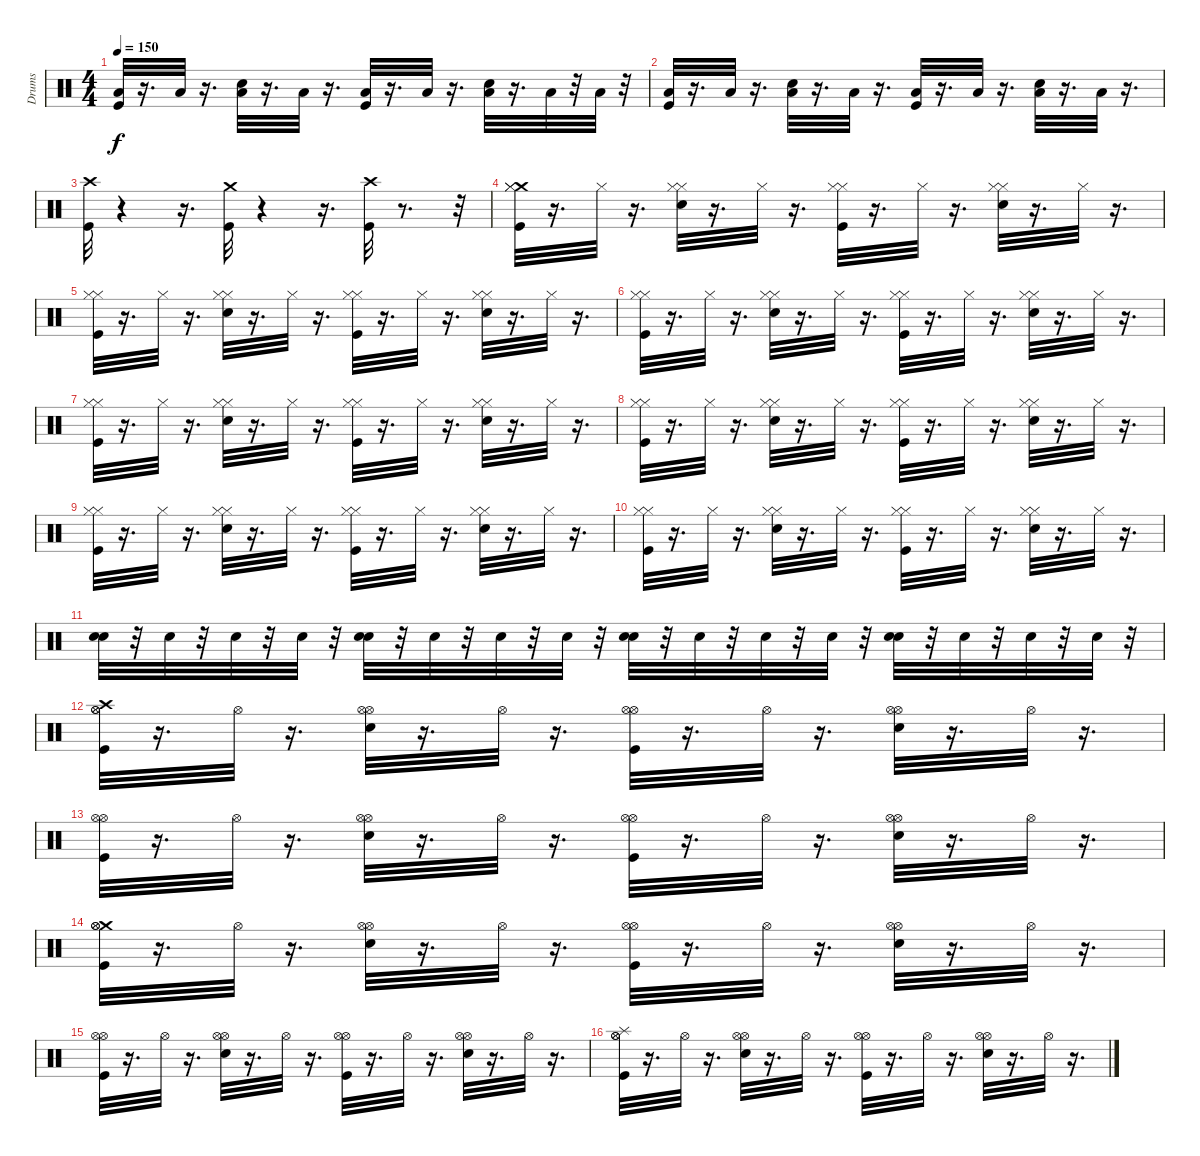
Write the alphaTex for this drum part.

\track ("Drums" "Drums") {instrument percussion}
\staff {score}
\articulation defaults
\ts (4 4)
\tempo 150
\clef neutral
\ks c
("Kick (hit)" "Low Floor Tom (hit)").32{dy f} r.16{d} "Low Floor Tom (hit)".32 r.16{d} ("Low Floor Tom (hit)" "Snare (hit) 2").32 r.16{d} "Low Floor Tom (hit)".32 r.16{d} ("Kick (hit)" "Low Floor Tom (hit)").32 r.16{d} "Low Floor Tom (hit)".32 r.16{d} ("Low Floor Tom (hit)" "Snare (hit) 2").32 r.16{d} "Low Floor Tom (hit)".32 r.32 "Low Floor Tom (hit)".32 r.32 |
("Kick (hit)" "Low Floor Tom (hit)").32 r.16{d} "Low Floor Tom (hit)".32 r.16{d} ("Low Floor Tom (hit)" "Snare (hit) 2").32 r.16{d} "Low Floor Tom (hit)".32 r.16{d} ("Low Floor Tom (hit)" "Kick (hit)").32 r.16{d} "Low Floor Tom (hit)".32 r.16{d} ("Snare (hit) 2" "Low Floor Tom (hit)").32 r.16{d} "Low Floor Tom (hit)".32 r.16{d} |
("Crash high (hit)" "Kick (hit)").32 r.4 r.16{d} ("Kick (hit)" "Crash medium (hit)").32 r.4 r.16{d} ("Crash high (hit)" "Kick (hit)").32 r.8{d} r.32 |
("Crash medium (hit)" "Hi-Hat (closed)" "Hi-Hat (closed)" "Kick (hit)").32 r.16{d} "Hi-Hat (closed)".32 r.16{d} ("Hi-Hat (closed)" "Hi-Hat (closed)" "Snare (hit) 2").32 r.16{d} "Hi-Hat (closed)".32 r.16{d} ("Hi-Hat (closed)" "Hi-Hat (closed)" "Kick (hit)").32 r.16{d} "Hi-Hat (closed)".32 r.16{d} ("Hi-Hat (closed)" "Hi-Hat (closed)" "Snare (hit) 2").32 r.16{d} "Hi-Hat (closed)".32 r.16{d} |
("Hi-Hat (closed)" "Hi-Hat (closed)" "Kick (hit)").32 r.16{d} "Hi-Hat (closed)".32 r.16{d} ("Hi-Hat (closed)" "Hi-Hat (closed)" "Snare (hit) 2").32 r.16{d} "Hi-Hat (closed)".32 r.16{d} ("Hi-Hat (closed)" "Hi-Hat (closed)" "Kick (hit)").32 r.16{d} "Hi-Hat (closed)".32 r.16{d} ("Hi-Hat (closed)" "Hi-Hat (closed)" "Snare (hit) 2").32 r.16{d} "Hi-Hat (closed)".32 r.16{d} |
("Hi-Hat (closed)" "Hi-Hat (closed)" "Kick (hit)").32 r.16{d} "Hi-Hat (closed)".32 r.16{d} ("Hi-Hat (closed)" "Hi-Hat (closed)" "Snare (hit) 2").32 r.16{d} "Hi-Hat (closed)".32 r.16{d} ("Hi-Hat (closed)" "Hi-Hat (closed)" "Kick (hit)").32 r.16{d} "Hi-Hat (closed)".32 r.16{d} ("Hi-Hat (closed)" "Hi-Hat (closed)" "Snare (hit) 2").32 r.16{d} "Hi-Hat (closed)".32 r.16{d} |
("Hi-Hat (closed)" "Hi-Hat (closed)" "Kick (hit)").32 r.16{d} "Hi-Hat (closed)".32 r.16{d} ("Hi-Hat (closed)" "Hi-Hat (closed)" "Snare (hit) 2").32 r.16{d} "Hi-Hat (closed)".32 r.16{d} ("Hi-Hat (closed)" "Hi-Hat (closed)" "Kick (hit)").32 r.16{d} "Hi-Hat (closed)".32 r.16{d} ("Hi-Hat (closed)" "Hi-Hat (closed)" "Snare (hit) 2").32 r.16{d} "Hi-Hat (closed)".32 r.16{d} |
("Hi-Hat (closed)" "Hi-Hat (closed)" "Kick (hit)").32 r.16{d} "Hi-Hat (closed)".32 r.16{d} ("Hi-Hat (closed)" "Hi-Hat (closed)" "Snare (hit) 2").32 r.16{d} "Hi-Hat (closed)".32 r.16{d} ("Hi-Hat (closed)" "Hi-Hat (closed)" "Kick (hit)").32 r.16{d} "Hi-Hat (closed)".32 r.16{d} ("Hi-Hat (closed)" "Hi-Hat (closed)" "Snare (hit) 2").32 r.16{d} "Hi-Hat (closed)".32 r.16{d} |
("Hi-Hat (closed)" "Hi-Hat (closed)" "Kick (hit)").32 r.16{d} "Hi-Hat (closed)".32 r.16{d} ("Hi-Hat (closed)" "Hi-Hat (closed)" "Snare (hit) 2").32 r.16{d} "Hi-Hat (closed)".32 r.16{d} ("Hi-Hat (closed)" "Hi-Hat (closed)" "Kick (hit)").32 r.16{d} "Hi-Hat (closed)".32 r.16{d} ("Hi-Hat (closed)" "Hi-Hat (closed)" "Snare (hit) 2").32 r.16{d} "Hi-Hat (closed)".32 r.16{d} |
("Hi-Hat (closed)" "Hi-Hat (closed)" "Kick (hit)").32 r.16{d} "Hi-Hat (closed)".32 r.16{d} ("Hi-Hat (closed)" "Hi-Hat (closed)" "Snare (hit) 2").32 r.16{d} "Hi-Hat (closed)".32 r.16{d} ("Hi-Hat (closed)" "Hi-Hat (closed)" "Kick (hit)").32 r.16{d} "Hi-Hat (closed)".32 r.16{d} ("Hi-Hat (closed)" "Hi-Hat (closed)" "Snare (hit) 2").32 r.16{d} "Hi-Hat (closed)".32 r.16{d} |
("Snare (hit) 2" "Snare (hit) 2").32 r.32 "Snare (hit) 2".32 r.32 "Snare (hit) 2".32 r.32 "Snare (hit) 2".32 r.32 ("Snare (hit) 2" "Snare (hit) 2").32 r.32 "Snare (hit) 2".32 r.32 "Snare (hit) 2".32 r.32 "Snare (hit) 2".32 r.32 ("Snare (hit) 2" "Snare (hit) 2").32 r.32 "Snare (hit) 2".32 r.32 "Snare (hit) 2".32 r.32 "Snare (hit) 2".32 r.32 ("Snare (hit) 2" "Snare (hit) 2").32 r.32 "Snare (hit) 2".32 r.32 "Snare (hit) 2".32 r.32 "Snare (hit) 2".32 r.32 |
("Crash high (hit)" "Kick (hit)" "Hi-Hat (open)" "Hi-Hat (open)").32 r.16{d} "Hi-Hat (open)".32 r.16{d} ("Hi-Hat (open)" "Snare (hit) 2" "Hi-Hat (open)").32 r.16{d} "Hi-Hat (open)".32 r.16{d} ("Hi-Hat (open)" "Kick (hit)" "Hi-Hat (open)").32 r.16{d} "Hi-Hat (open)".32 r.16{d} ("Hi-Hat (open)" "Hi-Hat (open)" "Snare (hit) 2").32 r.16{d} "Hi-Hat (open)".32 r.16{d} |
("Hi-Hat (open)" "Hi-Hat (open)" "Kick (hit)").32 r.16{d} "Hi-Hat (open)".32 r.16{d} ("Snare (hit) 2" "Hi-Hat (open)" "Hi-Hat (open)").32 r.16{d} "Hi-Hat (open)".32 r.16{d} ("Kick (hit)" "Hi-Hat (open)" "Hi-Hat (open)").32 r.16{d} "Hi-Hat (open)".32 r.16{d} ("Hi-Hat (open)" "Hi-Hat (open)" "Snare (hit) 2").32 r.16{d} "Hi-Hat (open)".32 r.16{d} |
("Crash medium (hit)" "Hi-Hat (open)" "Kick (hit)" "Hi-Hat (open)").32 r.16{d} "Hi-Hat (open)".32 r.16{d} ("Hi-Hat (open)" "Snare (hit) 2" "Hi-Hat (open)").32 r.16{d} "Hi-Hat (open)".32 r.16{d} ("Kick (hit)" "Hi-Hat (open)" "Hi-Hat (open)").32 r.16{d} "Hi-Hat (open)".32 r.16{d} ("Hi-Hat (open)" "Hi-Hat (open)" "Snare (hit) 2").32 r.16{d} "Hi-Hat (open)".32 r.16{d} |
("Kick (hit)" "Hi-Hat (open)" "Hi-Hat (open)").32 r.16{d} "Hi-Hat (open)".32 r.16{d} ("Snare (hit) 2" "Hi-Hat (open)" "Hi-Hat (open)").32 r.16{d} "Hi-Hat (open)".32 r.16{d} ("Kick (hit)" "Hi-Hat (open)" "Hi-Hat (open)").32 r.16{d} "Hi-Hat (open)".32 r.16{d} ("Hi-Hat (open)" "Snare (hit) 2" "Hi-Hat (open)").32 r.16{d} "Hi-Hat (open)".32 r.16{d} |
("Splash (hit)" "Hi-Hat (open)" "Kick (hit)" "Hi-Hat (open)").32 r.16{d} "Hi-Hat (open)".32 r.16{d} ("Hi-Hat (open)" "Hi-Hat (open)" "Snare (hit) 2").32 r.16{d} "Hi-Hat (open)".32 r.16{d} ("Hi-Hat (open)" "Hi-Hat (open)" "Kick (hit)").32 r.16{d} "Hi-Hat (open)".32 r.16{d} ("Snare (hit) 2" "Hi-Hat (open)" "Hi-Hat (open)").32 r.16{d} "Hi-Hat (open)".32 r.16{d}
